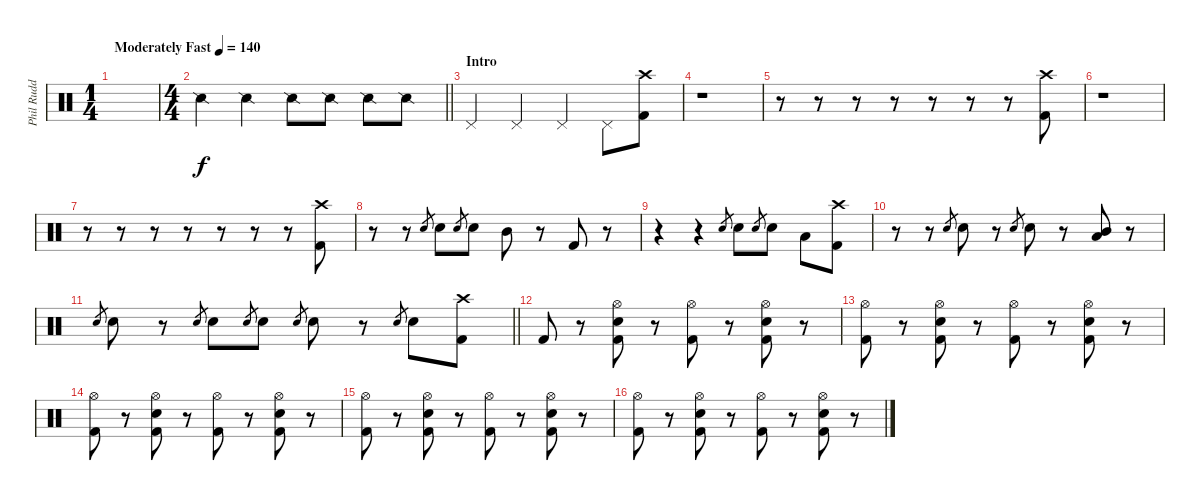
\track ("Phil Rudd" "Phil Rudd") {instrument percussion}
\staff {score}
\articulation defaults
\ts (1 4)
\tempo (140 "Moderately Fast")
\clef neutral
\ks c
|
\ts (4 4)
\barLineRight lightlight "Snare (side stick) 2".4 "Snare (side stick) 2".4 "Snare (side stick) 2".8 "Snare (side stick) 2".8 "Snare (side stick) 2".8 "Snare (side stick) 2".8
|
\section ("" "Intro")
"Pedal Hi-Hat (hit)".4 "Pedal Hi-Hat (hit)".4 "Pedal Hi-Hat (hit)".4 "Pedal Hi-Hat (hit)".8 ("Crash high (hit)" "Kick (hit) 2").8 |
r.1 |
r.8 r.8 r.8 r.8 r.8 r.8 r.8 ("Crash high (hit)" "Kick (hit) 2").8 |
r.1 |
r.8 r.8 r.8 r.8 r.8 r.8 r.8 ("Crash high (hit)" "Kick (hit) 2").8 |
r.8 r.8 "Electric Snare (hit)".8{gr} "Electric Snare (hit)".8 "Electric Snare (hit)".8{gr} "Electric Snare (hit)".8 "Mid Tom (hit)".8 r.8 "Kick (hit) 2".8 r.8 |
r.4 r.4 "Electric Snare (hit)".8{gr} "Electric Snare (hit)".8 "Electric Snare (hit)".8{gr} "Electric Snare (hit)".8 "Low Tom (hit)".8 ("Crash high (hit)" "Kick (hit) 2").8 |
r.8 r.8 "Electric Snare (hit)".8{gr} "Electric Snare (hit)".8 r.8 "Electric Snare (hit)".8{gr} "Electric Snare (hit)".8 r.8 ("Mid Tom (hit)" "Low Tom (hit)").8 r.8 |
\barLineRight lightlight "Electric Snare (hit)".8{gr} "Electric Snare (hit)".8
r.8 "Electric Snare (hit)".8{gr} "Electric Snare (hit)".8 "Electric Snare (hit)".8{gr} "Electric Snare (hit)".8 "Electric Snare (hit)".8{gr} "Electric Snare (hit)".8 r.8 "Electric Snare (hit)".8{gr} "Electric Snare (hit)".8 ("Crash high (hit)" "Kick (hit) 2").8 |
"Kick (hit) 2".8 r.8 ("Hi-Hat (open)" "Electric Snare (hit)" "Kick (hit) 2").8 r.8 ("Hi-Hat (open)" "Kick (hit) 2").8 r.8 ("Hi-Hat (open)" "Electric Snare (hit)" "Kick (hit) 2").8 r.8 |
("Hi-Hat (open)" "Kick (hit) 2").8 r.8 ("Hi-Hat (open)" "Electric Snare (hit)" "Kick (hit) 2").8 r.8 ("Hi-Hat (open)" "Kick (hit) 2").8 r.8 ("Hi-Hat (open)" "Electric Snare (hit)" "Kick (hit) 2").8 r.8 |
("Hi-Hat (open)" "Kick (hit) 2").8 r.8 ("Hi-Hat (open)" "Electric Snare (hit)" "Kick (hit) 2").8 r.8 ("Hi-Hat (open)" "Kick (hit) 2").8 r.8 ("Hi-Hat (open)" "Electric Snare (hit)" "Kick (hit) 2").8 r.8 |
("Hi-Hat (open)" "Kick (hit) 2").8 r.8 ("Hi-Hat (open)" "Electric Snare (hit)" "Kick (hit) 2").8 r.8 ("Hi-Hat (open)" "Kick (hit) 2").8 r.8 ("Hi-Hat (open)" "Electric Snare (hit)" "Kick (hit) 2").8 r.8 |
("Hi-Hat (open)" "Kick (hit) 2").8 r.8 ("Hi-Hat (open)" "Electric Snare (hit)" "Kick (hit) 2").8 r.8 ("Hi-Hat (open)" "Kick (hit) 2").8 r.8 ("Hi-Hat (open)" "Electric Snare (hit)" "Kick (hit) 2").8 r.8
